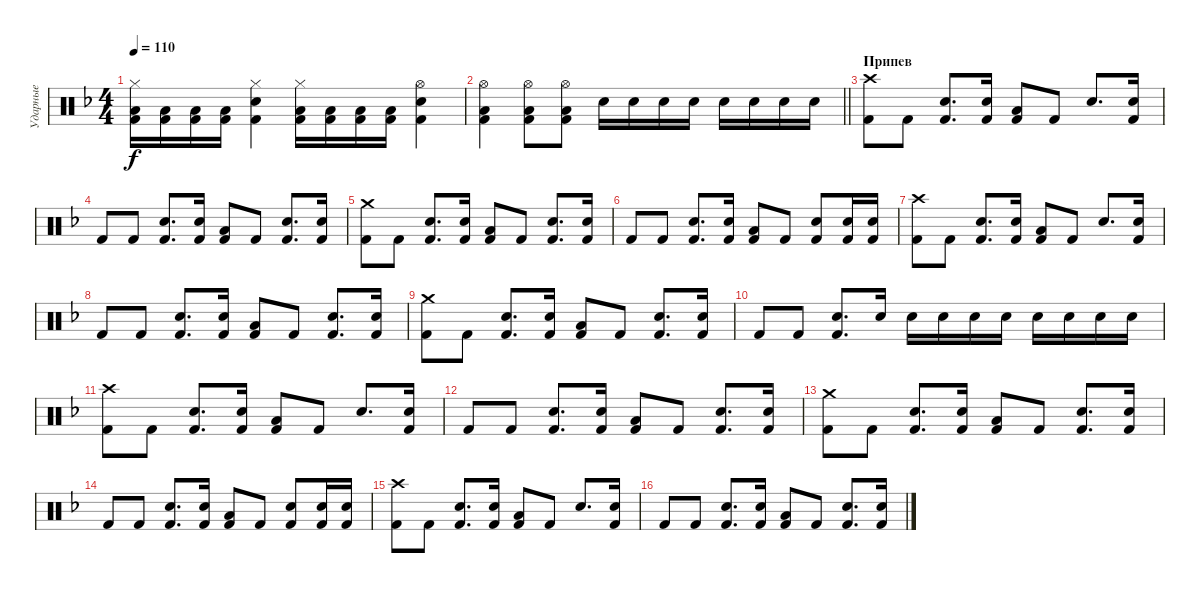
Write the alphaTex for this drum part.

\track ("Ударные" "Ударные") {instrument percussion}
\staff {score}
\articulation defaults
\ts (4 4)
\tempo 110
\clef neutral
\ks dminor
("Hi-Hat (closed)" "Low Tom (hit)" "Kick (hit) 2").16{dy f} ("Low Tom (hit)" "Kick (hit) 2").16 ("Low Tom (hit)" "Kick (hit) 2").16 ("Low Tom (hit)" "Kick (hit) 2").16 ("Hi-Hat (closed)" "Electric Snare (hit)" "Kick (hit) 2").4 ("Hi-Hat (closed)" "Low Tom (hit)" "Kick (hit) 2").16 ("Low Tom (hit)" "Kick (hit) 2").16 ("Low Tom (hit)" "Kick (hit) 2").16 ("Low Tom (hit)" "Kick (hit) 2").16 ("Hi-Hat (open)" "Electric Snare (hit)" "Kick (hit) 2").4 |
\barLineRight lightlight
("Hi-Hat (open)" "Low Tom (hit)" "Kick (hit) 2").4 ("Hi-Hat (open)" "Low Tom (hit)" "Kick (hit) 2").8 ("Hi-Hat (open)" "Low Tom (hit)" "Kick (hit) 2").8 "Electric Snare (hit)".16 "Electric Snare (hit)".16 "Electric Snare (hit)".16 "Electric Snare (hit)".16 "Electric Snare (hit)".16 "Electric Snare (hit)".16 "Electric Snare (hit)".16 "Electric Snare (hit)".16 |
\section ("" "Припев")
("Crash high (hit)" "Kick (hit) 2").8 "Kick (hit) 2".8 ("Electric Snare (hit)" "Kick (hit) 2").8{d} ("Electric Snare (hit)" "Kick (hit) 2").16 ("Low Tom (hit)" "Kick (hit) 2").8 "Kick (hit) 2".8 "Electric Snare (hit)".8{d} ("Electric Snare (hit)" "Kick (hit) 2").16 |
"Kick (hit) 2".8 "Kick (hit) 2".8 ("Electric Snare (hit)" "Kick (hit) 2").8{d} ("Electric Snare (hit)" "Kick (hit) 2").16 ("Low Tom (hit)" "Kick (hit) 2").8 "Kick (hit) 2".8 ("Electric Snare (hit)" "Kick (hit) 2").8{d} ("Electric Snare (hit)" "Kick (hit) 2").16 |
("Crash medium (hit)" "Kick (hit) 2").8 "Kick (hit) 2".8 ("Electric Snare (hit)" "Kick (hit) 2").8{d} ("Electric Snare (hit)" "Kick (hit) 2").16 ("Low Tom (hit)" "Kick (hit) 2").8 "Kick (hit) 2".8 ("Electric Snare (hit)" "Kick (hit) 2").8{d} ("Electric Snare (hit)" "Kick (hit) 2").16 |
"Kick (hit) 2".8 "Kick (hit) 2".8 ("Electric Snare (hit)" "Kick (hit) 2").8{d} ("Electric Snare (hit)" "Kick (hit) 2").16 ("Low Tom (hit)" "Kick (hit) 2").8 "Kick (hit) 2".8 ("Electric Snare (hit)" "Kick (hit) 2").8 ("Electric Snare (hit)" "Kick (hit) 2").16 ("Electric Snare (hit)" "Kick (hit) 2").16 |
("Crash high (hit)" "Kick (hit) 2").8 "Kick (hit) 2".8 ("Electric Snare (hit)" "Kick (hit) 2").8{d} ("Electric Snare (hit)" "Kick (hit) 2").16 ("Low Tom (hit)" "Kick (hit) 2").8 "Kick (hit) 2".8 "Electric Snare (hit)".8{d} ("Electric Snare (hit)" "Kick (hit) 2").16 |
"Kick (hit) 2".8 "Kick (hit) 2".8 ("Electric Snare (hit)" "Kick (hit) 2").8{d} ("Electric Snare (hit)" "Kick (hit) 2").16 ("Low Tom (hit)" "Kick (hit) 2").8 "Kick (hit) 2".8 ("Electric Snare (hit)" "Kick (hit) 2").8{d} ("Electric Snare (hit)" "Kick (hit) 2").16 |
("Crash medium (hit)" "Kick (hit) 2").8 "Kick (hit) 2".8 ("Electric Snare (hit)" "Kick (hit) 2").8{d} ("Electric Snare (hit)" "Kick (hit) 2").16 ("Low Tom (hit)" "Kick (hit) 2").8 "Kick (hit) 2".8 ("Electric Snare (hit)" "Kick (hit) 2").8{d} ("Electric Snare (hit)" "Kick (hit) 2").16 |
"Kick (hit) 2".8 "Kick (hit) 2".8 ("Electric Snare (hit)" "Kick (hit) 2").8{d} "Electric Snare (hit)".16 "Electric Snare (hit)".16 "Electric Snare (hit)".16 "Electric Snare (hit)".16 "Electric Snare (hit)".16 "Electric Snare (hit)".16 "Electric Snare (hit)".16 "Electric Snare (hit)".16 "Electric Snare (hit)".16 |
("Crash high (hit)" "Kick (hit) 2").8 "Kick (hit) 2".8 ("Electric Snare (hit)" "Kick (hit) 2").8{d} ("Electric Snare (hit)" "Kick (hit) 2").16 ("Low Tom (hit)" "Kick (hit) 2").8 "Kick (hit) 2".8 "Electric Snare (hit)".8{d} ("Electric Snare (hit)" "Kick (hit) 2").16 |
"Kick (hit) 2".8 "Kick (hit) 2".8 ("Electric Snare (hit)" "Kick (hit) 2").8{d} ("Electric Snare (hit)" "Kick (hit) 2").16 ("Low Tom (hit)" "Kick (hit) 2").8 "Kick (hit) 2".8 ("Electric Snare (hit)" "Kick (hit) 2").8{d} ("Electric Snare (hit)" "Kick (hit) 2").16 |
("Crash medium (hit)" "Kick (hit) 2").8 "Kick (hit) 2".8 ("Electric Snare (hit)" "Kick (hit) 2").8{d} ("Electric Snare (hit)" "Kick (hit) 2").16 ("Low Tom (hit)" "Kick (hit) 2").8 "Kick (hit) 2".8 ("Electric Snare (hit)" "Kick (hit) 2").8{d} ("Electric Snare (hit)" "Kick (hit) 2").16 |
"Kick (hit) 2".8 "Kick (hit) 2".8 ("Electric Snare (hit)" "Kick (hit) 2").8{d} ("Electric Snare (hit)" "Kick (hit) 2").16 ("Low Tom (hit)" "Kick (hit) 2").8 "Kick (hit) 2".8 ("Electric Snare (hit)" "Kick (hit) 2").8 ("Electric Snare (hit)" "Kick (hit) 2").16 ("Electric Snare (hit)" "Kick (hit) 2").16 |
("Crash high (hit)" "Kick (hit) 2").8 "Kick (hit) 2".8 ("Electric Snare (hit)" "Kick (hit) 2").8{d} ("Electric Snare (hit)" "Kick (hit) 2").16 ("Low Tom (hit)" "Kick (hit) 2").8 "Kick (hit) 2".8 "Electric Snare (hit)".8{d} ("Electric Snare (hit)" "Kick (hit) 2").16 |
"Kick (hit) 2".8 "Kick (hit) 2".8 ("Electric Snare (hit)" "Kick (hit) 2").8{d} ("Electric Snare (hit)" "Kick (hit) 2").16 ("Low Tom (hit)" "Kick (hit) 2").8 "Kick (hit) 2".8 ("Electric Snare (hit)" "Kick (hit) 2").8{d} ("Electric Snare (hit)" "Kick (hit) 2").16
